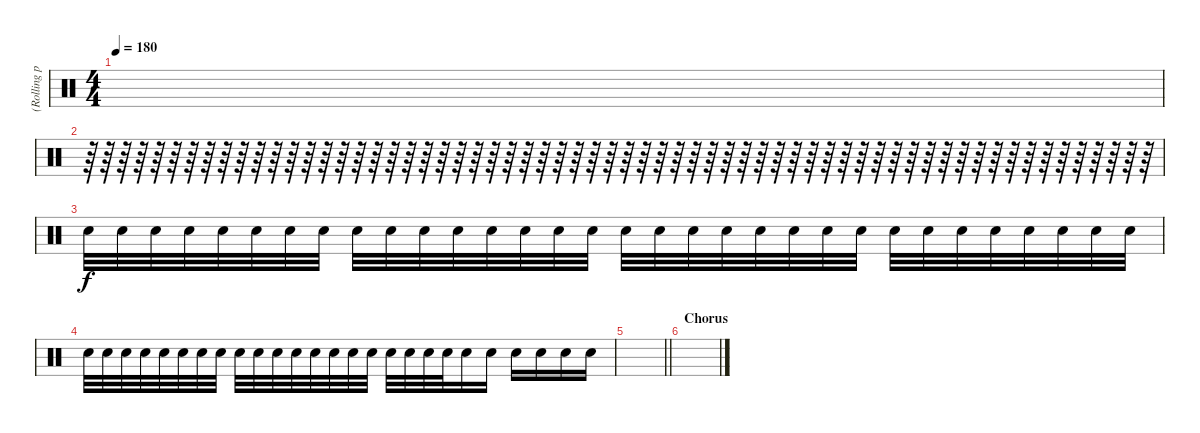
\track ("(Rolling part of Pre-Chorus)" "(Rolling p") {instrument percussion}
\staff {score}
\articulation defaults
\ts (4 4)
\tempo 180
\clef neutral
\ks c
|
r.64 r.64 r.64 r.64 r.64 r.64 r.64 r.64 r.64 r.64 r.64 r.64 r.64 r.64 r.64 r.64 r.64 r.64 r.64 r.64 r.64 r.64 r.64 r.64 r.64 r.64 r.64 r.64 r.64 r.64 r.64 r.64 r.64 r.64 r.64 r.64 r.64 r.64 r.64 r.64 r.64 r.64 r.64 r.64 r.64 r.64 r.64 r.64 r.64 r.64 r.64 r.64 r.64 r.64 r.64 r.64 r.64 r.64 r.64 r.64 r.64 r.64 r.64 r.64{volume 1} |
"Snare (hit) 2".32{volume 16} "Snare (hit) 2".32 "Snare (hit) 2".32 "Snare (hit) 2".32 "Snare (hit) 2".32 "Snare (hit) 2".32 "Snare (hit) 2".32 "Snare (hit) 2".32 "Snare (hit) 2".32 "Snare (hit) 2".32 "Snare (hit) 2".32 "Snare (hit) 2".32 "Snare (hit) 2".32 "Snare (hit) 2".32 "Snare (hit) 2".32 "Snare (hit) 2".32 "Snare (hit) 2".32 "Snare (hit) 2".32 "Snare (hit) 2".32 "Snare (hit) 2".32 "Snare (hit) 2".32 "Snare (hit) 2".32 "Snare (hit) 2".32 "Snare (hit) 2".32 "Snare (hit) 2".32 "Snare (hit) 2".32 "Snare (hit) 2".32 "Snare (hit) 2".32 "Snare (hit) 2".32 "Snare (hit) 2".32 "Snare (hit) 2".32 "Snare (hit) 2".32 |
"Snare (hit) 2".32 "Snare (hit) 2".32 "Snare (hit) 2".32 "Snare (hit) 2".32 "Snare (hit) 2".32 "Snare (hit) 2".32 "Snare (hit) 2".32 "Snare (hit) 2".32 "Snare (hit) 2".32 "Snare (hit) 2".32 "Snare (hit) 2".32 "Snare (hit) 2".32 "Snare (hit) 2".32 "Snare (hit) 2".32 "Snare (hit) 2".32 "Snare (hit) 2".32 "Snare (hit) 2".32 "Snare (hit) 2".32 "Snare (hit) 2".32 "Snare (hit) 2".32 "Snare (hit) 2".16 "Snare (hit) 2".16 "Snare (hit) 2".16 "Snare (hit) 2".16 "Snare (hit) 2".16 "Snare (hit) 2".16 |
\barLineRight lightlight
|
\section ("" "Chorus")
